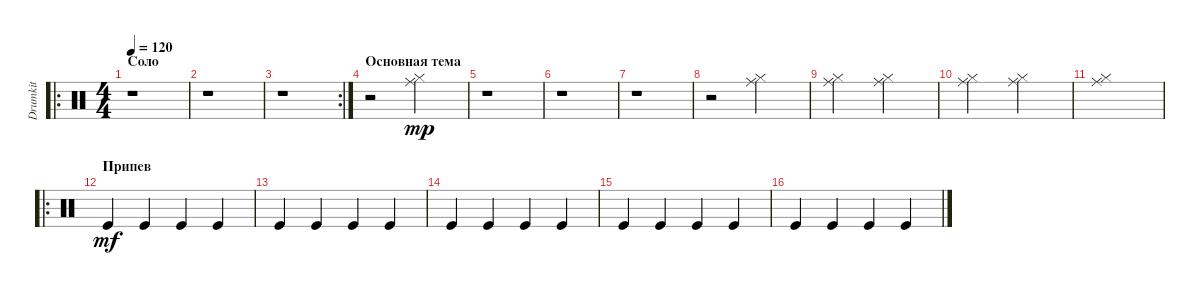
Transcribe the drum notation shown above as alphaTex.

\track ("Drumkit" "Drumkit") {instrument percussion}
\staff {score}
\articulation defaults
\ro
\ts (4 4)
\section ("" "Соло")
\tempo 120
\clef neutral
\ks c
r.1{dy pp} |
r.1 |
\rc 2
r.1 |
\section ("" "Основная тема")
r.2 ("Hi-Hat (closed)" "Ride (middle)").2{dy mp} |
r.1 |
r.1 |
r.1 |
r.2 ("Hi-Hat (closed)" "Ride (middle)").2 |
("Hi-Hat (closed)" "Ride (middle)").2 ("Hi-Hat (closed)" "Ride (middle)").2 |
("Hi-Hat (closed)" "Ride (middle)").2 ("Hi-Hat (closed)" "Ride (middle)").2 |
("Hi-Hat (closed)" "Ride (middle)").1 |
\ro
\section ("" "Припев")
"Kick (hit)".4{dy mf} "Kick (hit)".4 "Kick (hit)".4 "Kick (hit)".4 |
"Kick (hit)".4 "Kick (hit)".4 "Kick (hit)".4 "Kick (hit)".4 |
"Kick (hit)".4 "Kick (hit)".4 "Kick (hit)".4 "Kick (hit)".4 |
"Kick (hit)".4 "Kick (hit)".4 "Kick (hit)".4 "Kick (hit)".4 |
"Kick (hit)".4 "Kick (hit)".4 "Kick (hit)".4 "Kick (hit)".4
